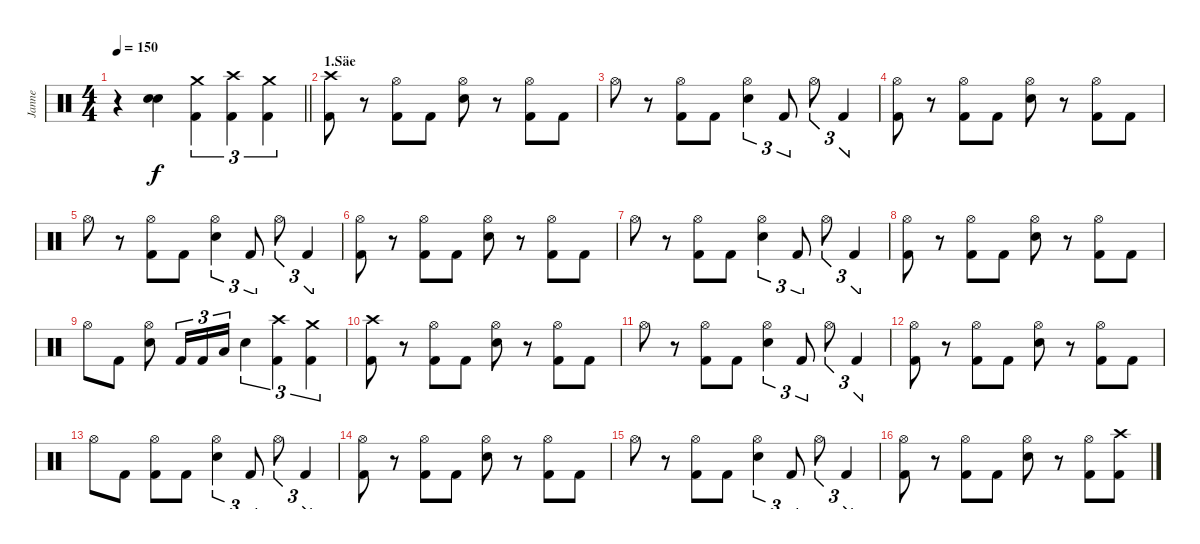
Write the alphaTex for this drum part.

\track ("Janne" "Janne") {instrument percussion}
\staff {score}
\articulation defaults
\ts (4 4)
\tempo 150
\clef neutral
\barLineRight lightlight
\ks c
r.4{dy ppp} ("Electric Snare (hit)" "Electric Snare (hit)").4{dy f} ("Crash medium (hit)" "Kick (hit) 2").4{tu (3 2)} ("Crash high (hit)" "Kick (hit) 2").4{tu (3 2)} ("Crash medium (hit)" "Kick (hit) 2").4{tu (3 2)} |
\section ("" "1.Säe")
("Crash high (hit)" "Kick (hit) 2").8 r.8 ("Hi-Hat (open)" "Kick (hit) 2").8 "Kick (hit) 2".8 ("Hi-Hat (open)" "Electric Snare (hit)").8 r.8 ("Hi-Hat (open)" "Kick (hit) 2").8 "Kick (hit) 2".8 |
"Hi-Hat (open)".8 r.8 ("Hi-Hat (open)" "Kick (hit) 2").8 "Kick (hit) 2".8 ("Hi-Hat (open)" "Electric Snare (hit)").4{tu (3 2)} "Kick (hit) 2".8{tu (3 2)} "Hi-Hat (open)".8{tu (3 2)} "Kick (hit) 2".4{tu (3 2)} |
("Hi-Hat (open)" "Kick (hit) 2").8 r.8 ("Hi-Hat (open)" "Kick (hit) 2").8 "Kick (hit) 2".8 ("Hi-Hat (open)" "Electric Snare (hit)").8 r.8 ("Hi-Hat (open)" "Kick (hit) 2").8 "Kick (hit) 2".8 |
"Hi-Hat (open)".8 r.8 ("Hi-Hat (open)" "Kick (hit) 2").8 "Kick (hit) 2".8 ("Hi-Hat (open)" "Electric Snare (hit)").4{tu (3 2)} "Kick (hit) 2".8{tu (3 2)} "Hi-Hat (open)".8{tu (3 2)} "Kick (hit) 2".4{tu (3 2)} |
("Hi-Hat (open)" "Kick (hit) 2").8 r.8 ("Hi-Hat (open)" "Kick (hit) 2").8 "Kick (hit) 2".8 ("Hi-Hat (open)" "Electric Snare (hit)").8 r.8 ("Hi-Hat (open)" "Kick (hit) 2").8 "Kick (hit) 2".8 |
"Hi-Hat (open)".8 r.8 ("Hi-Hat (open)" "Kick (hit) 2").8 "Kick (hit) 2".8 ("Hi-Hat (open)" "Electric Snare (hit)").4{tu (3 2)} "Kick (hit) 2".8{tu (3 2)} "Hi-Hat (open)".8{tu (3 2)} "Kick (hit) 2".4{tu (3 2)} |
("Hi-Hat (open)" "Kick (hit) 2").8 r.8 ("Hi-Hat (open)" "Kick (hit) 2").8 "Kick (hit) 2".8 ("Hi-Hat (open)" "Electric Snare (hit)").8 r.8 ("Hi-Hat (open)" "Kick (hit) 2").8 "Kick (hit) 2".8 |
"Hi-Hat (open)".8 "Kick (hit) 2".8 ("Hi-Hat (open)" "Electric Snare (hit)").8 "Kick (hit) 2".16{tu (3 2)} "Kick (hit) 2".16{tu (3 2)} "Low Floor Tom (hit)".16{tu (3 2)} "Electric Snare (hit)".4{tu (3 2)} ("Crash high (hit)" "Kick (hit) 2").4{tu (3 2)} ("Crash medium (hit)" "Kick (hit) 2").4{tu (3 2)} |
("Crash high (hit)" "Kick (hit) 2").8 r.8 ("Hi-Hat (open)" "Kick (hit) 2").8 "Kick (hit) 2".8 ("Hi-Hat (open)" "Electric Snare (hit)").8 r.8 ("Hi-Hat (open)" "Kick (hit) 2").8 "Kick (hit) 2".8 |
"Hi-Hat (open)".8 r.8 ("Hi-Hat (open)" "Kick (hit) 2").8 "Kick (hit) 2".8 ("Hi-Hat (open)" "Electric Snare (hit)").4{tu (3 2)} "Kick (hit) 2".8{tu (3 2)} "Hi-Hat (open)".8{tu (3 2)} "Kick (hit) 2".4{tu (3 2)} |
("Hi-Hat (open)" "Kick (hit) 2").8 r.8 ("Hi-Hat (open)" "Kick (hit) 2").8 "Kick (hit) 2".8 ("Hi-Hat (open)" "Electric Snare (hit)").8 r.8 ("Hi-Hat (open)" "Kick (hit) 2").8 "Kick (hit) 2".8 |
"Hi-Hat (open)".8 "Kick (hit) 2".8 ("Hi-Hat (open)" "Kick (hit) 2").8 "Kick (hit) 2".8 ("Hi-Hat (open)" "Electric Snare (hit)").4{tu (3 2)} "Kick (hit) 2".8{tu (3 2)} "Hi-Hat (open)".8{tu (3 2)} "Kick (hit) 2".4{tu (3 2)} |
("Hi-Hat (open)" "Kick (hit) 2").8 r.8 ("Hi-Hat (open)" "Kick (hit) 2").8 "Kick (hit) 2".8 ("Hi-Hat (open)" "Electric Snare (hit)").8 r.8 ("Hi-Hat (open)" "Kick (hit) 2").8 "Kick (hit) 2".8 |
"Hi-Hat (open)".8 r.8 ("Hi-Hat (open)" "Kick (hit) 2").8 "Kick (hit) 2".8 ("Hi-Hat (open)" "Electric Snare (hit)").4{tu (3 2)} "Kick (hit) 2".8{tu (3 2)} "Hi-Hat (open)".8{tu (3 2)} "Kick (hit) 2".4{tu (3 2)} |
("Hi-Hat (open)" "Kick (hit) 2").8 r.8 ("Hi-Hat (open)" "Kick (hit) 2").8 "Kick (hit) 2".8 ("Hi-Hat (open)" "Electric Snare (hit)").8 r.8 ("Hi-Hat (open)" "Kick (hit) 2").8 ("Crash high (hit)" "Kick (hit) 2").8
